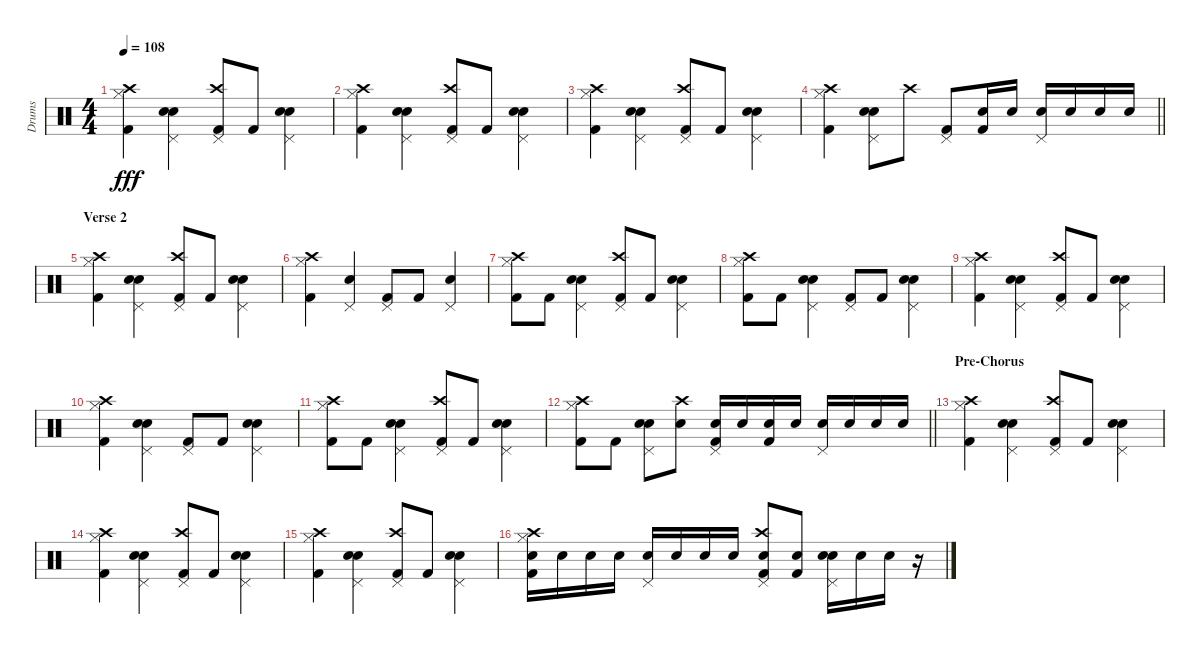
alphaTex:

\track ("Drums" "Drums") {instrument percussion}
\staff {score}
\articulation defaults
\ts (4 4)
\tempo 108
\clef neutral
\ks c
("Hi-Hat (closed)" "Kick (hit) 2" "Crash high (hit)").4{dy fff} ("Electric Snare (hit)" "Pedal Hi-Hat (hit)" "Snare (hit) 2").4 ("Pedal Hi-Hat (hit)" "Kick (hit) 2" "Crash high (hit)").8 "Kick (hit) 2".8 ("Electric Snare (hit)" "Pedal Hi-Hat (hit)" "Snare (hit) 2").4 |
("Hi-Hat (closed)" "Kick (hit) 2" "Crash high (hit)").4 ("Electric Snare (hit)" "Pedal Hi-Hat (hit)" "Snare (hit) 2").4 ("Pedal Hi-Hat (hit)" "Kick (hit) 2" "Crash high (hit)").8 "Kick (hit) 2".8 ("Electric Snare (hit)" "Pedal Hi-Hat (hit)" "Snare (hit) 2").4 |
("Hi-Hat (closed)" "Kick (hit) 2" "Crash high (hit)").4 ("Electric Snare (hit)" "Pedal Hi-Hat (hit)" "Snare (hit) 2").4 ("Pedal Hi-Hat (hit)" "Kick (hit) 2" "Crash high (hit)").8 "Kick (hit) 2".8 ("Electric Snare (hit)" "Pedal Hi-Hat (hit)" "Snare (hit) 2").4 |
\barLineRight lightlight
("Hi-Hat (closed)" "Kick (hit) 2" "Crash high (hit)").4 ("Electric Snare (hit)" "Pedal Hi-Hat (hit)" "Snare (hit) 2").8 "Crash high (hit)".8 ("Pedal Hi-Hat (hit)" "Kick (hit) 2").8 ("Kick (hit) 2" "Snare (hit) 2").16 "Snare (hit) 2".16 ("Pedal Hi-Hat (hit)" "Electric Snare (hit)").16 "Electric Snare (hit)".16 "Electric Snare (hit)".16 "Electric Snare (hit)".16 |
\section ("" "Verse 2")
("Hi-Hat (closed)" "Kick (hit) 2" "Crash high (hit)").4 ("Electric Snare (hit)" "Pedal Hi-Hat (hit)" "Snare (hit) 2").4 ("Pedal Hi-Hat (hit)" "Kick (hit) 2" "Crash high (hit)").8 "Kick (hit) 2".8 ("Electric Snare (hit)" "Pedal Hi-Hat (hit)" "Snare (hit) 2").4 |
("Hi-Hat (closed)" "Kick (hit) 2" "Crash high (hit)").4 ("Electric Snare (hit)" "Pedal Hi-Hat (hit)").4 ("Pedal Hi-Hat (hit)" "Kick (hit) 2").8 "Kick (hit) 2".8 ("Electric Snare (hit)" "Pedal Hi-Hat (hit)").4 |
("Hi-Hat (closed)" "Kick (hit) 2" "Crash high (hit)").8 "Kick (hit) 2".8 ("Electric Snare (hit)" "Pedal Hi-Hat (hit)" "Snare (hit) 2").4 ("Pedal Hi-Hat (hit)" "Kick (hit) 2" "Crash high (hit)").8 "Kick (hit) 2".8 ("Electric Snare (hit)" "Pedal Hi-Hat (hit)" "Snare (hit) 2").4 |
("Hi-Hat (closed)" "Kick (hit) 2" "Crash high (hit)").8 "Kick (hit) 2".8 ("Electric Snare (hit)" "Pedal Hi-Hat (hit)" "Snare (hit) 2").4 ("Pedal Hi-Hat (hit)" "Kick (hit) 2").8 "Kick (hit) 2".8 ("Electric Snare (hit)" "Pedal Hi-Hat (hit)" "Snare (hit) 2").4 |
("Hi-Hat (closed)" "Kick (hit) 2" "Crash high (hit)").4 ("Electric Snare (hit)" "Pedal Hi-Hat (hit)" "Snare (hit) 2").4 ("Pedal Hi-Hat (hit)" "Kick (hit) 2" "Crash high (hit)").8 "Kick (hit) 2".8 ("Electric Snare (hit)" "Pedal Hi-Hat (hit)" "Snare (hit) 2").4 |
("Hi-Hat (closed)" "Kick (hit) 2" "Crash high (hit)").4 ("Electric Snare (hit)" "Pedal Hi-Hat (hit)" "Snare (hit) 2").4 ("Pedal Hi-Hat (hit)" "Kick (hit) 2").8 "Kick (hit) 2".8 ("Electric Snare (hit)" "Pedal Hi-Hat (hit)" "Snare (hit) 2").4 |
("Hi-Hat (closed)" "Kick (hit) 2" "Crash high (hit)").8 "Kick (hit) 2".8 ("Electric Snare (hit)" "Pedal Hi-Hat (hit)" "Snare (hit) 2").4 ("Pedal Hi-Hat (hit)" "Kick (hit) 2" "Crash high (hit)").8 "Kick (hit) 2".8 ("Electric Snare (hit)" "Pedal Hi-Hat (hit)" "Snare (hit) 2").4 |
\barLineRight lightlight
("Hi-Hat (closed)" "Kick (hit) 2" "Crash high (hit)").8 "Kick (hit) 2".8 ("Electric Snare (hit)" "Pedal Hi-Hat (hit)" "Snare (hit) 2").8 ("Crash high (hit)" "Snare (hit) 2").8 ("Pedal Hi-Hat (hit)" "Kick (hit) 2" "Snare (hit) 2").16 "Snare (hit) 2".16 ("Kick (hit) 2" "Snare (hit) 2").16 "Snare (hit) 2".16 ("Pedal Hi-Hat (hit)" "Electric Snare (hit)").16 "Electric Snare (hit)".16 "Snare (hit) 2".16 "Snare (hit) 2".16 |
\section ("" "Pre-Chorus")
("Hi-Hat (closed)" "Kick (hit) 2" "Crash high (hit)").4 ("Electric Snare (hit)" "Pedal Hi-Hat (hit)" "Snare (hit) 2").4 ("Pedal Hi-Hat (hit)" "Kick (hit) 2" "Crash high (hit)").8 "Kick (hit) 2".8 ("Electric Snare (hit)" "Pedal Hi-Hat (hit)" "Snare (hit) 2").4 |
("Hi-Hat (closed)" "Kick (hit) 2" "Crash high (hit)").4 ("Electric Snare (hit)" "Pedal Hi-Hat (hit)" "Snare (hit) 2").4 ("Pedal Hi-Hat (hit)" "Kick (hit) 2" "Crash high (hit)").8 "Kick (hit) 2".8 ("Electric Snare (hit)" "Pedal Hi-Hat (hit)" "Snare (hit) 2").4 |
("Hi-Hat (closed)" "Kick (hit) 2" "Crash high (hit)").4 ("Electric Snare (hit)" "Pedal Hi-Hat (hit)" "Snare (hit) 2").4 ("Pedal Hi-Hat (hit)" "Kick (hit) 2" "Crash high (hit)").8 "Kick (hit) 2".8 ("Electric Snare (hit)" "Pedal Hi-Hat (hit)" "Snare (hit) 2").4 |
("Hi-Hat (closed)" "Kick (hit) 2" "Crash high (hit)" "Electric Snare (hit)").16 "Electric Snare (hit)".16 "Electric Snare (hit)".16 "Electric Snare (hit)".16 ("Pedal Hi-Hat (hit)" "Snare (hit) 2").16 "Snare (hit) 2".16 "Snare (hit) 2".16 "Snare (hit) 2".16 ("Pedal Hi-Hat (hit)" "Kick (hit) 2" "Crash high (hit)" "Snare (hit) 2").8 ("Kick (hit) 2" "Snare (hit) 2").8 ("Electric Snare (hit)" "Pedal Hi-Hat (hit)" "Snare (hit) 2").16 "Snare (hit) 2".16 "Snare (hit) 2".16 r.16
